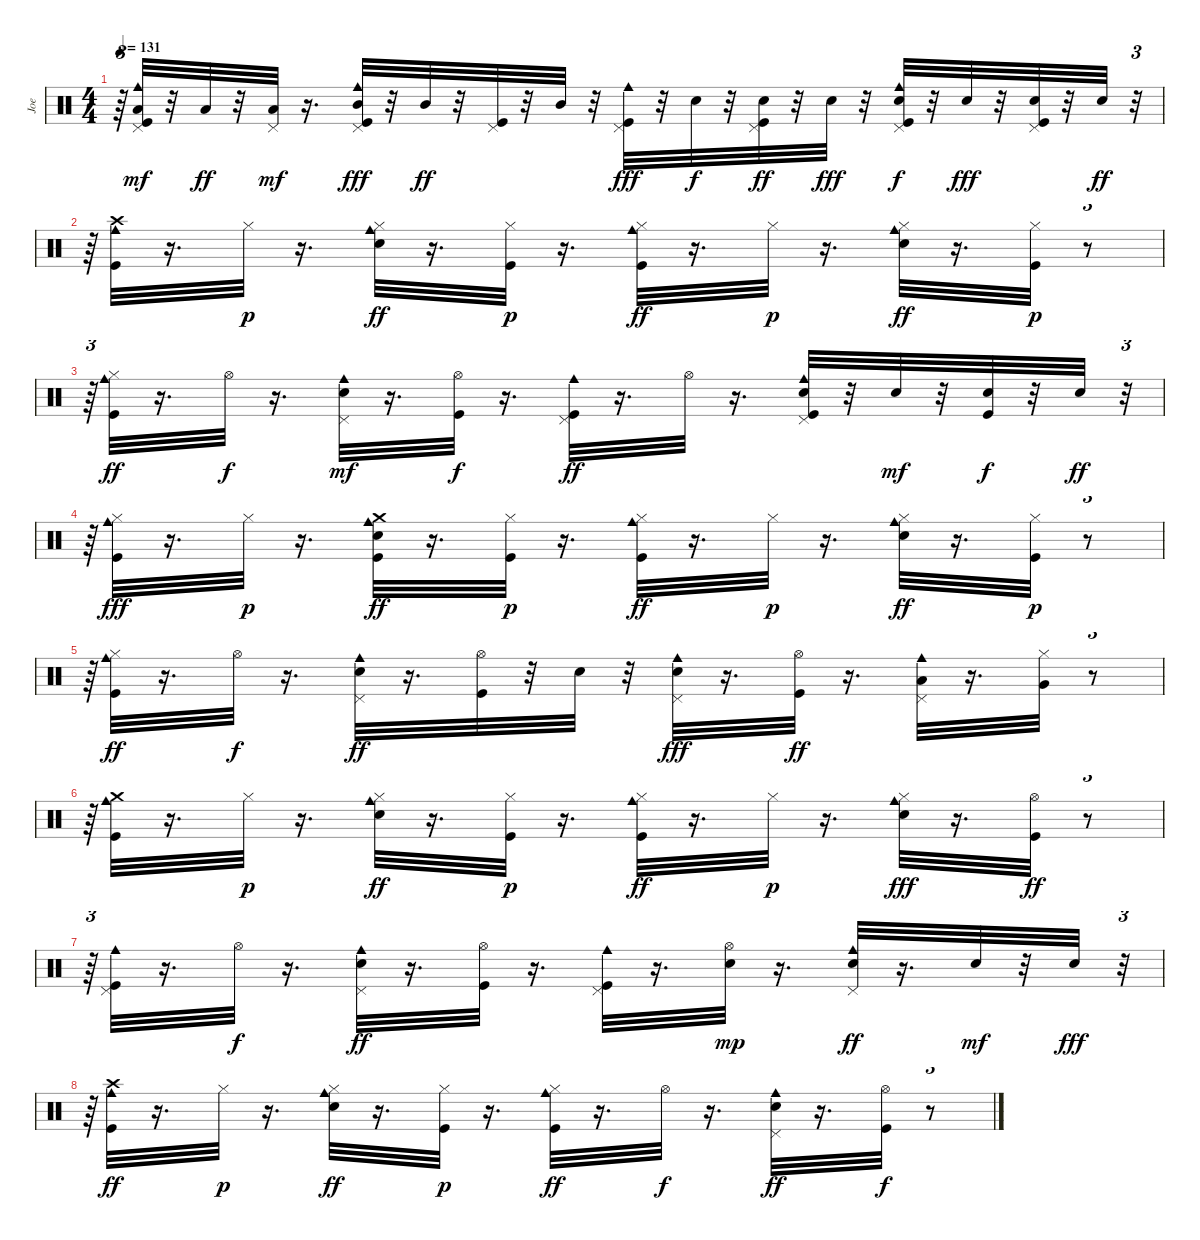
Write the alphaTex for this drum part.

\track ("Joe" "Joe") {instrument percussion}
\staff {score}
\articulation defaults
\ts (4 4)
\tempo 131
\clef neutral
\ks c
r.64{tu (3 2) dy mf} ("Kick (hit)" "Pedal Hi-Hat (hit)" "Low Tom (hit)" "Cowbell medium (hit)").32 r.32 "Low Tom (hit)".32{dy ff} r.32 ("Low Tom (hit)" "Pedal Hi-Hat (hit)").32{dy mf} r.16{d} ("Cowbell medium (hit)" "Pedal Hi-Hat (hit)" "Kick (hit)" "Mid Tom (hit)").32{dy fff} r.32 "Mid Tom (hit)".32{dy ff} r.32 ("Pedal Hi-Hat (hit)" "Kick (hit)").32 r.32 "Mid Tom (hit)".32 r.32 ("Cowbell medium (hit)" "Pedal Hi-Hat (hit)" "Kick (hit)").32{dy fff} r.32 "Snare (hit) 2".32{dy f} r.32 ("Kick (hit)" "Pedal Hi-Hat (hit)" "Snare (hit) 2").32{dy ff} r.32 "Snare (hit) 2".32{dy fff} r.32 ("Pedal Hi-Hat (hit)" "Cowbell medium (hit)" "Kick (hit)" "Snare (hit) 2").32{dy f} r.32 "Snare (hit) 2".32{dy fff} r.32 ("Kick (hit)" "Pedal Hi-Hat (hit)" "Snare (hit) 2").32 r.32 "Snare (hit) 2".32{dy ff} r.32{tu (3 2)} |
r.64{tu (3 2)} ("Kick (hit)" "Cowbell medium (hit)" "Crash high (hit)").32 r.16{d} "Hi-Hat (closed)".32{dy p} r.16{d} ("Snare (hit) 2" "Cowbell medium (hit)" "Hi-Hat (closed)").32{dy ff} r.16{d} ("Hi-Hat (closed)" "Kick (hit)").32{dy p} r.16{d} ("Cowbell medium (hit)" "Hi-Hat (closed)" "Kick (hit)").32{dy ff} r.16{d} "Hi-Hat (closed)".32{dy p} r.16{d} ("Snare (hit) 2" "Cowbell medium (hit)" "Hi-Hat (closed)").32{dy ff} r.16{d} ("Kick (hit)" "Hi-Hat (closed)").32{dy p} r.8{tu (3 2)} |
r.64{tu (3 2)} ("Kick (hit)" "Cowbell medium (hit)" "Hi-Hat (closed)").32{dy ff} r.16{d} "Hi-Hat (open)".32{dy f} r.16{d} ("Snare (hit) 2" "Cowbell medium (hit)" "Pedal Hi-Hat (hit)").32{dy mf} r.16{d} ("Kick (hit)" "Hi-Hat (open)").32{dy f} r.16{d} ("Kick (hit)" "Pedal Hi-Hat (hit)" "Cowbell medium (hit)").32{dy ff} r.16{d} "Hi-Hat (open)".32 r.16{d} ("Cowbell medium (hit)" "Snare (hit) 2" "Pedal Hi-Hat (hit)" "Kick (hit)").32 r.32 "Snare (hit) 2".32{dy mf} r.32 ("Snare (hit) 2" "Kick (hit)").32{dy f} r.32 "Snare (hit) 2".32{dy ff} r.32{tu (3 2)} |
r.64{tu (3 2)} ("Cowbell medium (hit)" "Hi-Hat (closed)" "Kick (hit)").32{dy fff} r.16{d} "Hi-Hat (closed)".32{dy p} r.16{d} ("Cowbell medium (hit)" "Snare (hit) 2" "Kick (hit)" "Crash medium (hit)").32{dy ff} r.16{d} ("Kick (hit)" "Hi-Hat (closed)").32{dy p} r.16{d} ("Kick (hit)" "Cowbell medium (hit)" "Hi-Hat (closed)").32{dy ff} r.16{d} "Hi-Hat (closed)".32{dy p} r.16{d} ("Hi-Hat (closed)" "Cowbell medium (hit)" "Snare (hit) 2").32{dy ff} r.16{d} ("Kick (hit)" "Hi-Hat (closed)").32{dy p} r.8{tu (3 2)} |
r.64{tu (3 2)} ("Hi-Hat (closed)" "Kick (hit)" "Cowbell medium (hit)").32{dy ff} r.16{d} "Hi-Hat (open)".32{dy f} r.16{d} ("Snare (hit) 2" "Pedal Hi-Hat (hit)" "Cowbell medium (hit)").32{dy ff} r.16{d} ("Kick (hit)" "Hi-Hat (open)").32 r.32 "Snare (hit) 2".32 r.32 ("Pedal Hi-Hat (hit)" "Cowbell medium (hit)" "Snare (hit) 2").32{dy fff} r.16{d} ("Hi-Hat (open)" "Kick (hit)").32{dy ff} r.16{d} ("Cowbell medium (hit)" "Pedal Hi-Hat (hit)" "Low Tom (hit)").32 r.16{d} ("Hi-Hat (closed)" "Very Low Tom (hit)").32 r.8{tu (3 2)} |
r.64{tu (3 2)} ("Cowbell medium (hit)" "Kick (hit)" "Crash medium (hit)").32 r.16{d} "Hi-Hat (closed)".32{dy p} r.16{d} ("Snare (hit) 2" "Hi-Hat (closed)" "Cowbell medium (hit)").32{dy ff} r.16{d} ("Kick (hit)" "Hi-Hat (closed)").32{dy p} r.16{d} ("Kick (hit)" "Cowbell medium (hit)" "Hi-Hat (closed)").32{dy ff} r.16{d} "Hi-Hat (closed)".32{dy p} r.16{d} ("Hi-Hat (closed)" "Cowbell medium (hit)" "Snare (hit) 2").32{dy fff} r.16{d} ("Kick (hit)" "Hi-Hat (open)").32{dy ff} r.8{tu (3 2)} |
r.64{tu (3 2)} ("Cowbell medium (hit)" "Pedal Hi-Hat (hit)" "Kick (hit)").32 r.16{d} "Hi-Hat (open)".32{dy f} r.16{d} ("Pedal Hi-Hat (hit)" "Cowbell medium (hit)" "Snare (hit) 2").32{dy ff} r.16{d} ("Hi-Hat (open)" "Kick (hit)").32 r.16{d} ("Cowbell medium (hit)" "Kick (hit)" "Pedal Hi-Hat (hit)").32 r.16{d} ("Snare (hit) 2" "Hi-Hat (open)").32{dy mp} r.16{d} ("Cowbell medium (hit)" "Snare (hit) 2" "Pedal Hi-Hat (hit)").32{dy ff} r.16{d} "Snare (hit) 2".32{dy mf} r.32 "Snare (hit) 2".32{dy fff} r.32{tu (3 2)} |
r.64{tu (3 2)} ("Kick (hit)" "Crash high (hit)" "Cowbell medium (hit)").32{dy ff} r.16{d} "Hi-Hat (closed)".32{dy p} r.16{d} ("Cowbell medium (hit)" "Snare (hit) 2" "Hi-Hat (closed)").32{dy ff} r.16{d} ("Hi-Hat (closed)" "Kick (hit)").32{dy p} r.16{d} ("Cowbell medium (hit)" "Kick (hit)" "Hi-Hat (closed)").32{dy ff} r.16{d} "Hi-Hat (open)".32{dy f} r.16{d} ("Snare (hit) 2" "Pedal Hi-Hat (hit)" "Cowbell medium (hit)").32{dy ff} r.16{d} ("Hi-Hat (open)" "Kick (hit)").32{dy f} r.8{tu (3 2)}
